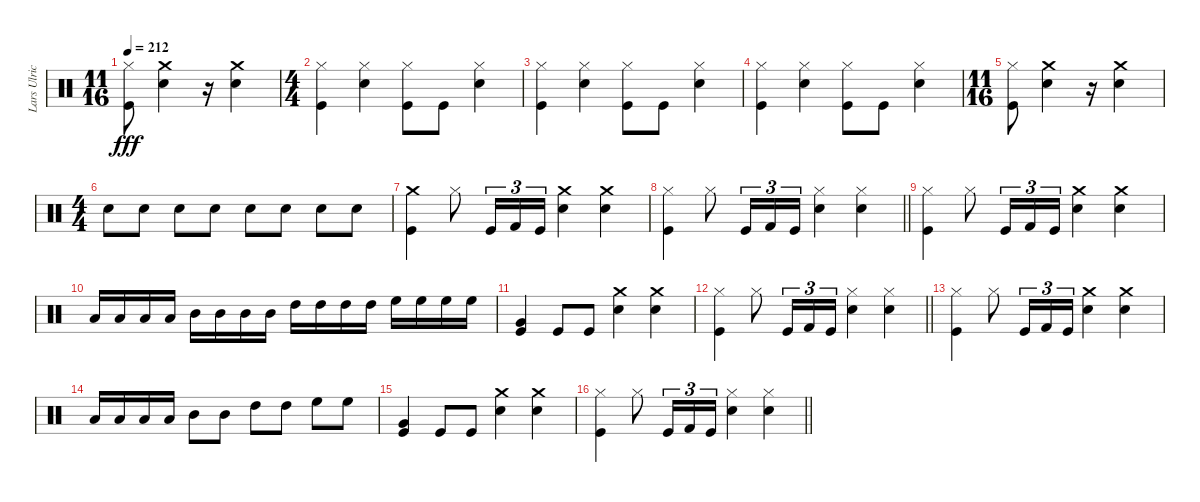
\track ("Lars Ulrich" "Lars Ulric") {instrument percussion}
\staff {score}
\articulation defaults
\ts (11 16)
\tempo 212
\clef neutral
\ks c
("Hi-Hat (closed)" "Kick (hit)").8{dy fff} ("Crash medium (hit)" "Snare (hit) 2").4 r.16 ("Crash medium (hit)" "Snare (hit) 2").4 |
\ts (4 4)
("Kick (hit)" "Hi-Hat (closed)").4 ("Snare (hit) 2" "Hi-Hat (closed)").4 ("Kick (hit)" "Hi-Hat (closed)").8 "Kick (hit)".8 ("Hi-Hat (closed)" "Snare (hit) 2").4 |
("Kick (hit)" "Hi-Hat (closed)").4 ("Snare (hit) 2" "Hi-Hat (closed)").4 ("Kick (hit)" "Hi-Hat (closed)").8 "Kick (hit)".8 ("Snare (hit) 2" "Hi-Hat (closed)").4 |
("Kick (hit)" "Hi-Hat (closed)").4 ("Hi-Hat (closed)" "Snare (hit) 2").4 ("Kick (hit)" "Hi-Hat (closed)").8 "Kick (hit)".8 ("Snare (hit) 2" "Hi-Hat (closed)").4 |
\ts (11 16)
("Kick (hit)" "Hi-Hat (closed)").8 ("Crash medium (hit)" "Snare (hit) 2").4 r.16 ("Crash medium (hit)" "Snare (hit) 2").4 |
\ts (4 4)
"Snare (hit) 2".8 "Snare (hit) 2".8 "Snare (hit) 2".8 "Snare (hit) 2".8 "Snare (hit) 2".8 "Snare (hit) 2".8 "Snare (hit) 2".8 "Snare (hit) 2".8 |
("Crash medium (hit)" "Kick (hit)").4 "Hi-Hat (closed)".8 "Kick (hit)".16{tu (3 2)} "Kick (hit) 2".16{tu (3 2)} "Kick (hit)".16{tu (3 2)} ("Snare (hit) 2" "Crash medium (hit)").4 ("Crash medium (hit)" "Snare (hit) 2").4 |
\barLineRight lightlight
("Kick (hit)" "Hi-Hat (closed)").4 "Hi-Hat (closed)".8 "Kick (hit)".16{tu (3 2)} "Kick (hit) 2".16{tu (3 2)} "Kick (hit)".16{tu (3 2)} ("Snare (hit) 2" "Hi-Hat (closed)").4 ("Snare (hit) 2" "Hi-Hat (closed)").4 |
("Hi-Hat (closed)" "Kick (hit)").4 "Hi-Hat (closed)".8 "Kick (hit)".16{tu (3 2)} "Kick (hit) 2".16{tu (3 2)} "Kick (hit)".16{tu (3 2)} ("Crash medium (hit)" "Snare (hit) 2").4 ("Crash medium (hit)" "Snare (hit) 2").4 |
"Low Tom (hit)".16 "Low Tom (hit)".16 "Low Tom (hit)".16 "Low Tom (hit)".16 "Mid Tom (hit)".16 "Mid Tom (hit)".16 "Mid Tom (hit)".16 "Mid Tom (hit)".16 "High Tom (hit)".16 "High Tom (hit)".16 "High Tom (hit)".16 "High Tom (hit)".16 "High Floor Tom (hit)".16 "High Floor Tom (hit)".16 "High Floor Tom (hit)".16 "High Floor Tom (hit)".16 |
("Kick (hit)" "Very Low Tom (hit)").4 "Kick (hit)".8 "Kick (hit)".8 ("Crash medium (hit)" "Snare (hit) 2").4 ("Crash medium (hit)" "Snare (hit) 2").4 |
\barLineRight lightlight
("Kick (hit)" "Hi-Hat (closed)").4 "Hi-Hat (closed)".8 "Kick (hit)".16{tu (3 2)} "Kick (hit) 2".16{tu (3 2)} "Kick (hit)".16{tu (3 2)} ("Hi-Hat (closed)" "Snare (hit) 2").4 ("Snare (hit) 2" "Hi-Hat (closed)").4 |
("Hi-Hat (closed)" "Kick (hit)").4 "Hi-Hat (closed)".8 "Kick (hit)".16{tu (3 2)} "Kick (hit) 2".16{tu (3 2)} "Kick (hit)".16{tu (3 2)} ("Crash medium (hit)" "Snare (hit) 2").4 ("Crash medium (hit)" "Snare (hit) 2").4 |
"Low Tom (hit)".16 "Low Tom (hit)".16 "Low Tom (hit)".16 "Low Tom (hit)".16 "Mid Tom (hit)".8 "Mid Tom (hit)".8 "High Tom (hit)".8 "High Tom (hit)".8 "High Floor Tom (hit)".8 "High Floor Tom (hit)".8 |
("Kick (hit)" "Very Low Tom (hit)").4 "Kick (hit)".8 "Kick (hit)".8 ("Crash medium (hit)" "Snare (hit) 2").4 ("Crash medium (hit)" "Snare (hit) 2").4 |
\barLineRight lightlight
("Kick (hit)" "Hi-Hat (closed)").4 "Hi-Hat (closed)".8 "Kick (hit)".16{tu (3 2)} "Kick (hit) 2".16{tu (3 2)} "Kick (hit)".16{tu (3 2)} ("Hi-Hat (closed)" "Snare (hit) 2").4 ("Snare (hit) 2" "Hi-Hat (closed)").4
